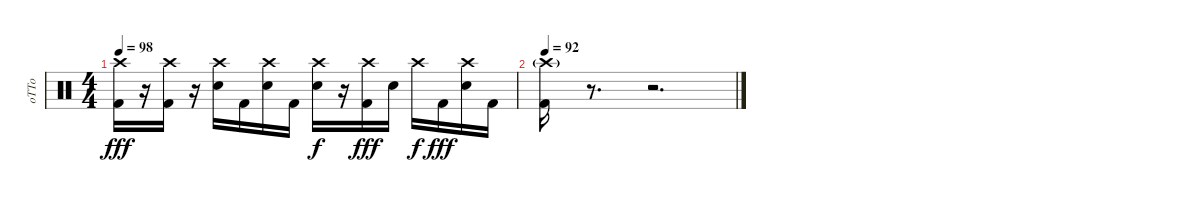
\track ("oTTo" "oTTo") {instrument percussion}
\staff {score}
\articulation defaults
\ts (4 4)
\tempo 98
\clef neutral
\ks c
("Crash high (hit)" "Kick (hit) 2").16{dy fff} r.16 ("Crash high (hit)" "Kick (hit) 2").16 r.16 ("Crash high (hit)" "Snare (hit) 2").16 "Kick (hit) 2".16 ("Crash high (hit)" "Snare (hit) 2").16 "Kick (hit) 2".16 ("Crash high (hit)" "Snare (hit) 2").16{dy f} r.16 ("Crash high (hit)" "Kick (hit) 2").16{dy fff} "Snare (hit) 2".16 "Crash high (hit)".16{dy f} "Kick (hit) 2".16{dy fff} ("Crash high (hit)" "Snare (hit) 2").16 "Kick (hit) 2".16 |
\tempo 92
("Crash high (hit)"{g} "Kick (hit) 2").16 r.8{d} r.2{d}
